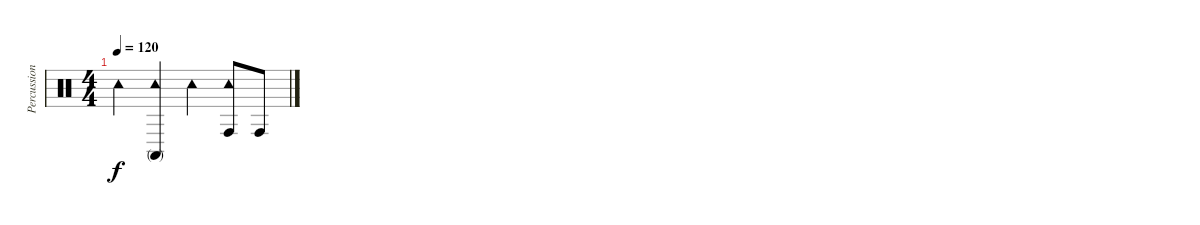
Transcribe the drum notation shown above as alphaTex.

\track ("Percussion" "Percussion") {instrument percussion}
\staff {score}
\articulation defaults
\ts (4 4)
\tempo 120
\clef neutral
\ks c "Tambourine (hit)".4{dy f}
("Conga high (mute)" "Tambourine (hit)").4 "Tambourine (hit)".4 ("Conga high (hit)" "Tambourine (hit)").8 "Conga high (hit)".8
